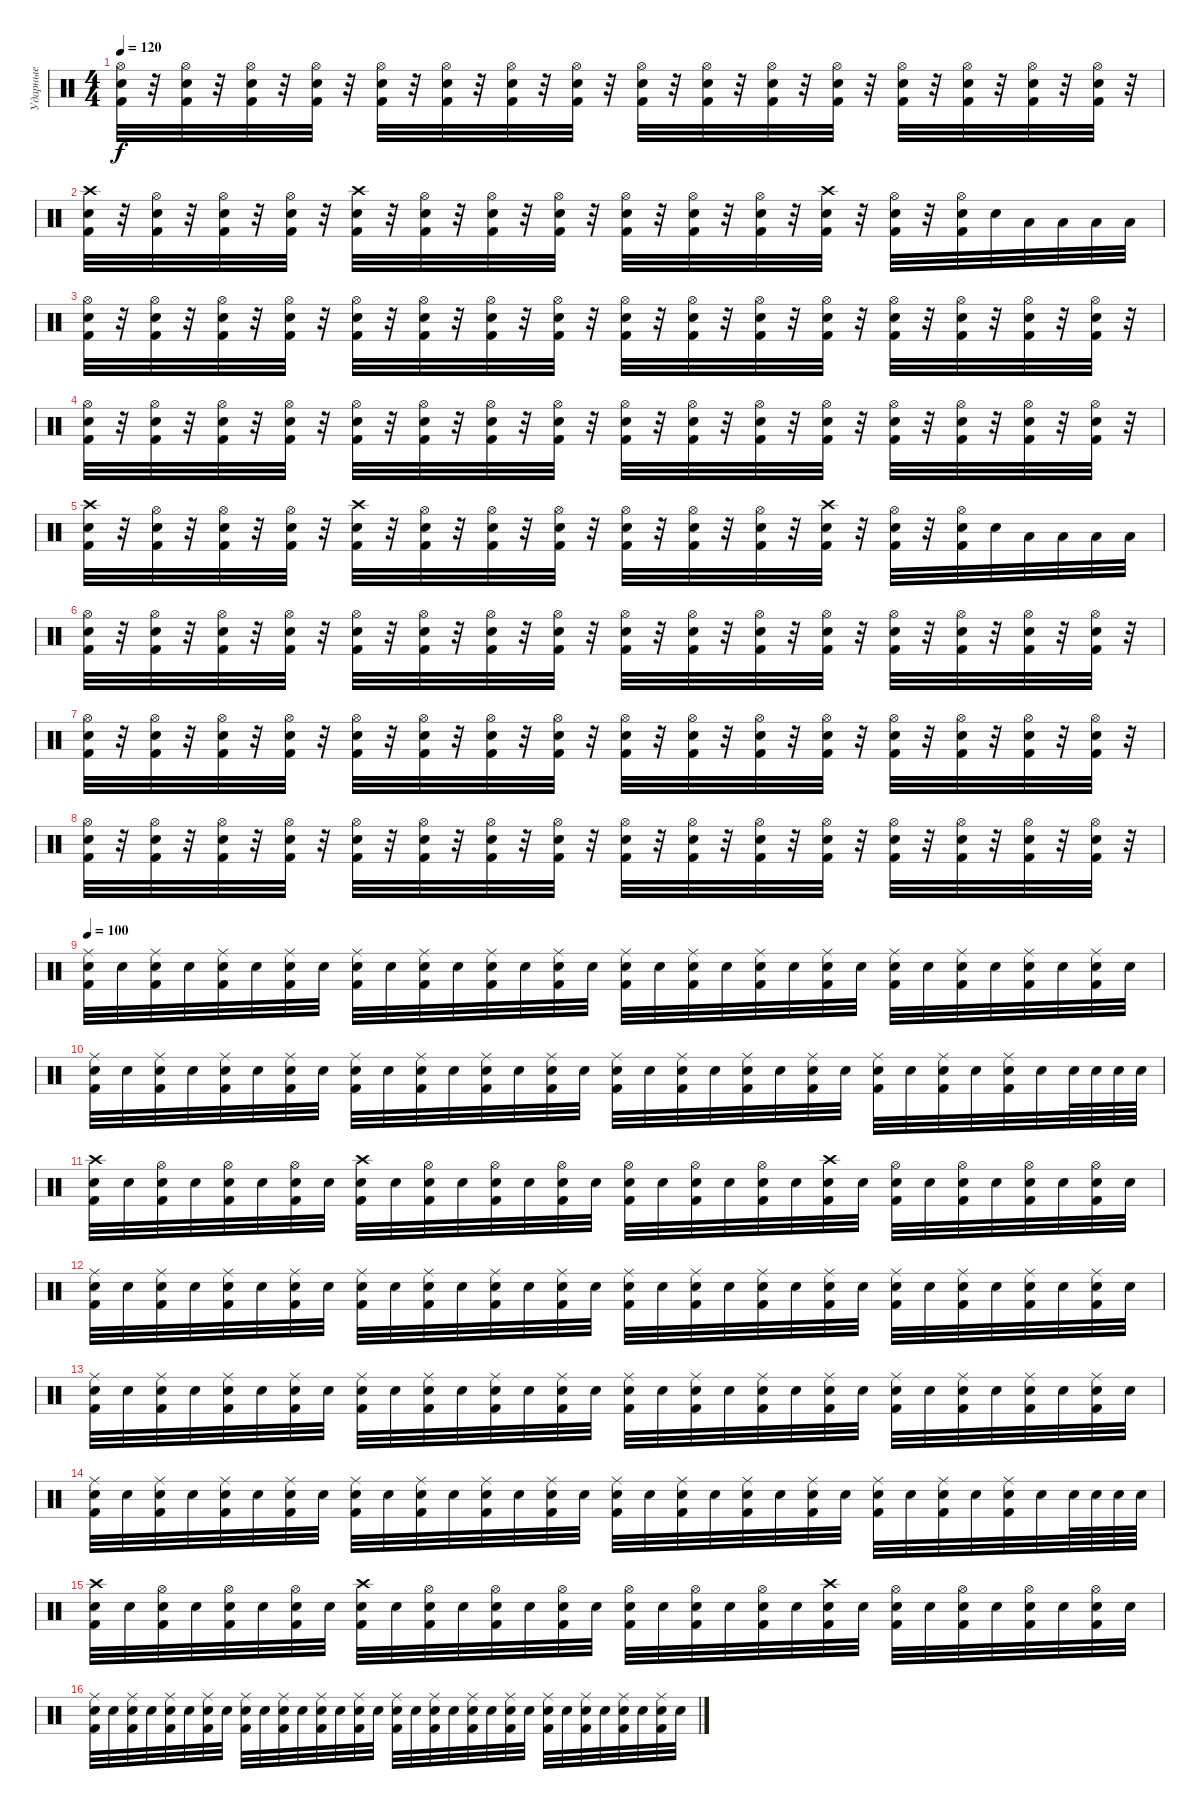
\track ("Ударные" "Ударные") {instrument percussion}
\staff {score}
\articulation defaults
\ts (4 4)
\tempo 120
\clef neutral
\ks c
("Snare (hit) 2" "Kick (hit) 2" "Hi-Hat (open)").32{dy f} r.32 ("Snare (hit) 2" "Kick (hit) 2" "Hi-Hat (open)").32 r.32 ("Snare (hit) 2" "Kick (hit) 2" "Hi-Hat (open)").32 r.32 ("Snare (hit) 2" "Kick (hit) 2" "Hi-Hat (open)").32 r.32 ("Snare (hit) 2" "Kick (hit) 2" "Hi-Hat (open)").32 r.32 ("Snare (hit) 2" "Kick (hit) 2" "Hi-Hat (open)").32 r.32 ("Snare (hit) 2" "Kick (hit) 2" "Hi-Hat (open)").32 r.32 ("Snare (hit) 2" "Kick (hit) 2" "Hi-Hat (open)").32 r.32 ("Snare (hit) 2" "Kick (hit) 2" "Hi-Hat (open)").32 r.32 ("Snare (hit) 2" "Kick (hit) 2" "Hi-Hat (open)").32 r.32 ("Snare (hit) 2" "Kick (hit) 2" "Hi-Hat (open)").32 r.32 ("Snare (hit) 2" "Kick (hit) 2" "Hi-Hat (open)").32 r.32 ("Snare (hit) 2" "Kick (hit) 2" "Hi-Hat (open)").32 r.32 ("Snare (hit) 2" "Kick (hit) 2" "Hi-Hat (open)").32 r.32 ("Snare (hit) 2" "Kick (hit) 2" "Hi-Hat (open)").32 r.32 ("Snare (hit) 2" "Kick (hit) 2" "Hi-Hat (open)").32 r.32 |
("Snare (hit) 2" "Kick (hit) 2" "Crash high (hit)").32 r.32 ("Snare (hit) 2" "Kick (hit) 2" "Hi-Hat (open)").32 r.32 ("Snare (hit) 2" "Kick (hit) 2" "Hi-Hat (open)").32 r.32 ("Snare (hit) 2" "Kick (hit) 2" "Hi-Hat (open)").32 r.32 ("Snare (hit) 2" "Kick (hit) 2" "Crash high (hit)").32 r.32 ("Snare (hit) 2" "Kick (hit) 2" "Hi-Hat (open)").32 r.32 ("Snare (hit) 2" "Kick (hit) 2" "Hi-Hat (open)").32 r.32 ("Snare (hit) 2" "Kick (hit) 2" "Hi-Hat (open)").32 r.32 ("Snare (hit) 2" "Kick (hit) 2" "Hi-Hat (open)").32 r.32 ("Snare (hit) 2" "Kick (hit) 2" "Hi-Hat (open)").32 r.32 ("Snare (hit) 2" "Kick (hit) 2" "Hi-Hat (open)").32 r.32 ("Snare (hit) 2" "Kick (hit) 2" "Crash high (hit)").32 r.32 ("Snare (hit) 2" "Kick (hit) 2" "Hi-Hat (open)").32 r.32 ("Snare (hit) 2" "Kick (hit) 2" "Hi-Hat (open)").32 "Snare (hit) 2".32 "Low Tom (hit)".32 "Low Tom (hit)".32 "Low Tom (hit)".32 "Low Tom (hit)".32 |
("Snare (hit) 2" "Kick (hit) 2" "Hi-Hat (open)").32 r.32 ("Snare (hit) 2" "Kick (hit) 2" "Hi-Hat (open)").32 r.32 ("Snare (hit) 2" "Kick (hit) 2" "Hi-Hat (open)").32 r.32 ("Snare (hit) 2" "Kick (hit) 2" "Hi-Hat (open)").32 r.32 ("Snare (hit) 2" "Kick (hit) 2" "Hi-Hat (open)").32 r.32 ("Snare (hit) 2" "Kick (hit) 2" "Hi-Hat (open)").32 r.32 ("Snare (hit) 2" "Kick (hit) 2" "Hi-Hat (open)").32 r.32 ("Snare (hit) 2" "Kick (hit) 2" "Hi-Hat (open)").32 r.32 ("Snare (hit) 2" "Kick (hit) 2" "Hi-Hat (open)").32 r.32 ("Snare (hit) 2" "Kick (hit) 2" "Hi-Hat (open)").32 r.32 ("Snare (hit) 2" "Kick (hit) 2" "Hi-Hat (open)").32 r.32 ("Snare (hit) 2" "Kick (hit) 2" "Hi-Hat (open)").32 r.32 ("Snare (hit) 2" "Kick (hit) 2" "Hi-Hat (open)").32 r.32 ("Snare (hit) 2" "Kick (hit) 2" "Hi-Hat (open)").32 r.32 ("Snare (hit) 2" "Kick (hit) 2" "Hi-Hat (open)").32 r.32 ("Snare (hit) 2" "Kick (hit) 2" "Hi-Hat (open)").32 r.32 |
("Snare (hit) 2" "Kick (hit) 2" "Hi-Hat (open)").32 r.32 ("Snare (hit) 2" "Kick (hit) 2" "Hi-Hat (open)").32 r.32 ("Snare (hit) 2" "Kick (hit) 2" "Hi-Hat (open)").32 r.32 ("Snare (hit) 2" "Kick (hit) 2" "Hi-Hat (open)").32 r.32 ("Snare (hit) 2" "Kick (hit) 2" "Hi-Hat (open)").32 r.32 ("Snare (hit) 2" "Kick (hit) 2" "Hi-Hat (open)").32 r.32 ("Snare (hit) 2" "Kick (hit) 2" "Hi-Hat (open)").32 r.32 ("Snare (hit) 2" "Kick (hit) 2" "Hi-Hat (open)").32 r.32 ("Snare (hit) 2" "Kick (hit) 2" "Hi-Hat (open)").32 r.32 ("Snare (hit) 2" "Kick (hit) 2" "Hi-Hat (open)").32 r.32 ("Snare (hit) 2" "Kick (hit) 2" "Hi-Hat (open)").32 r.32 ("Snare (hit) 2" "Kick (hit) 2" "Hi-Hat (open)").32 r.32 ("Snare (hit) 2" "Kick (hit) 2" "Hi-Hat (open)").32 r.32 ("Snare (hit) 2" "Kick (hit) 2" "Hi-Hat (open)").32 r.32 ("Snare (hit) 2" "Kick (hit) 2" "Hi-Hat (open)").32 r.32 ("Snare (hit) 2" "Kick (hit) 2" "Hi-Hat (open)").32 r.32 |
("Snare (hit) 2" "Kick (hit) 2" "Crash high (hit)").32 r.32 ("Snare (hit) 2" "Kick (hit) 2" "Hi-Hat (open)").32 r.32 ("Snare (hit) 2" "Kick (hit) 2" "Hi-Hat (open)").32 r.32 ("Snare (hit) 2" "Kick (hit) 2" "Hi-Hat (open)").32 r.32 ("Snare (hit) 2" "Kick (hit) 2" "Crash high (hit)").32 r.32 ("Snare (hit) 2" "Kick (hit) 2" "Hi-Hat (open)").32 r.32 ("Snare (hit) 2" "Kick (hit) 2" "Hi-Hat (open)").32 r.32 ("Snare (hit) 2" "Kick (hit) 2" "Hi-Hat (open)").32 r.32 ("Snare (hit) 2" "Kick (hit) 2" "Hi-Hat (open)").32 r.32 ("Snare (hit) 2" "Kick (hit) 2" "Hi-Hat (open)").32 r.32 ("Snare (hit) 2" "Kick (hit) 2" "Hi-Hat (open)").32 r.32 ("Snare (hit) 2" "Kick (hit) 2" "Crash high (hit)").32 r.32 ("Snare (hit) 2" "Kick (hit) 2" "Hi-Hat (open)").32 r.32 ("Snare (hit) 2" "Kick (hit) 2" "Hi-Hat (open)").32 "Snare (hit) 2".32 "Low Tom (hit)".32 "Low Tom (hit)".32 "Low Tom (hit)".32 "Low Tom (hit)".32 |
("Snare (hit) 2" "Kick (hit) 2" "Hi-Hat (open)").32 r.32 ("Snare (hit) 2" "Kick (hit) 2" "Hi-Hat (open)").32 r.32 ("Snare (hit) 2" "Kick (hit) 2" "Hi-Hat (open)").32 r.32 ("Snare (hit) 2" "Kick (hit) 2" "Hi-Hat (open)").32 r.32 ("Snare (hit) 2" "Kick (hit) 2" "Hi-Hat (open)").32 r.32 ("Snare (hit) 2" "Kick (hit) 2" "Hi-Hat (open)").32 r.32 ("Snare (hit) 2" "Kick (hit) 2" "Hi-Hat (open)").32 r.32 ("Snare (hit) 2" "Kick (hit) 2" "Hi-Hat (open)").32 r.32 ("Snare (hit) 2" "Kick (hit) 2" "Hi-Hat (open)").32 r.32 ("Snare (hit) 2" "Kick (hit) 2" "Hi-Hat (open)").32 r.32 ("Snare (hit) 2" "Kick (hit) 2" "Hi-Hat (open)").32 r.32 ("Snare (hit) 2" "Kick (hit) 2" "Hi-Hat (open)").32 r.32 ("Snare (hit) 2" "Kick (hit) 2" "Hi-Hat (open)").32 r.32 ("Snare (hit) 2" "Kick (hit) 2" "Hi-Hat (open)").32 r.32 ("Snare (hit) 2" "Kick (hit) 2" "Hi-Hat (open)").32 r.32 ("Snare (hit) 2" "Kick (hit) 2" "Hi-Hat (open)").32 r.32 |
("Snare (hit) 2" "Kick (hit) 2" "Hi-Hat (open)").32 r.32 ("Snare (hit) 2" "Kick (hit) 2" "Hi-Hat (open)").32 r.32 ("Snare (hit) 2" "Kick (hit) 2" "Hi-Hat (open)").32 r.32 ("Snare (hit) 2" "Kick (hit) 2" "Hi-Hat (open)").32 r.32 ("Snare (hit) 2" "Kick (hit) 2" "Hi-Hat (open)").32 r.32 ("Snare (hit) 2" "Kick (hit) 2" "Hi-Hat (open)").32 r.32 ("Snare (hit) 2" "Kick (hit) 2" "Hi-Hat (open)").32 r.32 ("Snare (hit) 2" "Kick (hit) 2" "Hi-Hat (open)").32 r.32 ("Snare (hit) 2" "Kick (hit) 2" "Hi-Hat (open)").32 r.32 ("Snare (hit) 2" "Kick (hit) 2" "Hi-Hat (open)").32 r.32 ("Snare (hit) 2" "Kick (hit) 2" "Hi-Hat (open)").32 r.32 ("Snare (hit) 2" "Kick (hit) 2" "Hi-Hat (open)").32 r.32 ("Snare (hit) 2" "Kick (hit) 2" "Hi-Hat (open)").32 r.32 ("Snare (hit) 2" "Kick (hit) 2" "Hi-Hat (open)").32 r.32 ("Snare (hit) 2" "Kick (hit) 2" "Hi-Hat (open)").32 r.32 ("Snare (hit) 2" "Kick (hit) 2" "Hi-Hat (open)").32 r.32 |
("Snare (hit) 2" "Kick (hit) 2" "Hi-Hat (open)").32 r.32 ("Snare (hit) 2" "Kick (hit) 2" "Hi-Hat (open)").32 r.32 ("Snare (hit) 2" "Kick (hit) 2" "Hi-Hat (open)").32 r.32 ("Snare (hit) 2" "Kick (hit) 2" "Hi-Hat (open)").32 r.32 ("Snare (hit) 2" "Kick (hit) 2" "Hi-Hat (open)").32 r.32 ("Snare (hit) 2" "Kick (hit) 2" "Hi-Hat (open)").32 r.32 ("Snare (hit) 2" "Kick (hit) 2" "Hi-Hat (open)").32 r.32 ("Snare (hit) 2" "Kick (hit) 2" "Hi-Hat (open)").32 r.32 ("Snare (hit) 2" "Kick (hit) 2" "Hi-Hat (open)").32 r.32 ("Snare (hit) 2" "Kick (hit) 2" "Hi-Hat (open)").32 r.32 ("Snare (hit) 2" "Kick (hit) 2" "Hi-Hat (open)").32 r.32 ("Snare (hit) 2" "Kick (hit) 2" "Hi-Hat (open)").32 r.32 ("Snare (hit) 2" "Kick (hit) 2" "Hi-Hat (open)").32 r.32 ("Snare (hit) 2" "Kick (hit) 2" "Hi-Hat (open)").32 r.32 ("Snare (hit) 2" "Kick (hit) 2" "Hi-Hat (open)").32 r.32 ("Snare (hit) 2" "Kick (hit) 2" "Hi-Hat (open)").32 r.32 |
\tempo 100
("Snare (hit) 2" "Kick (hit) 2" "Ride (middle)").32 "Snare (hit) 2".32 ("Snare (hit) 2" "Kick (hit) 2" "Ride (middle)").32 "Snare (hit) 2".32 ("Snare (hit) 2" "Kick (hit) 2" "Ride (middle)").32 "Snare (hit) 2".32 ("Snare (hit) 2" "Kick (hit) 2" "Ride (middle)").32 "Snare (hit) 2".32 ("Snare (hit) 2" "Kick (hit) 2" "Ride (middle)").32 "Snare (hit) 2".32 ("Snare (hit) 2" "Kick (hit) 2" "Ride (middle)").32 "Snare (hit) 2".32 ("Snare (hit) 2" "Kick (hit) 2" "Ride (middle)").32 "Snare (hit) 2".32 ("Snare (hit) 2" "Kick (hit) 2" "Ride (middle)").32 "Snare (hit) 2".32 ("Snare (hit) 2" "Kick (hit) 2" "Ride (middle)").32 "Snare (hit) 2".32 ("Snare (hit) 2" "Kick (hit) 2" "Ride (middle)").32 "Snare (hit) 2".32 ("Snare (hit) 2" "Kick (hit) 2" "Ride (middle)").32 "Snare (hit) 2".32 ("Snare (hit) 2" "Kick (hit) 2" "Ride (middle)").32 "Snare (hit) 2".32 ("Snare (hit) 2" "Kick (hit) 2" "Ride (middle)").32 "Snare (hit) 2".32 ("Snare (hit) 2" "Kick (hit) 2" "Ride (middle)").32 "Snare (hit) 2".32 ("Snare (hit) 2" "Kick (hit) 2" "Ride (middle)").32 "Snare (hit) 2".32 ("Snare (hit) 2" "Kick (hit) 2" "Ride (middle)").32 "Snare (hit) 2".32 |
("Snare (hit) 2" "Kick (hit) 2" "Ride (middle)").32 "Snare (hit) 2".32 ("Snare (hit) 2" "Kick (hit) 2" "Ride (middle)").32 "Snare (hit) 2".32 ("Snare (hit) 2" "Kick (hit) 2" "Ride (middle)").32 "Snare (hit) 2".32 ("Snare (hit) 2" "Kick (hit) 2" "Ride (middle)").32 "Snare (hit) 2".32 ("Snare (hit) 2" "Kick (hit) 2" "Ride (middle)").32 "Snare (hit) 2".32 ("Snare (hit) 2" "Kick (hit) 2" "Ride (middle)").32 "Snare (hit) 2".32 ("Snare (hit) 2" "Kick (hit) 2" "Ride (middle)").32 "Snare (hit) 2".32 ("Snare (hit) 2" "Kick (hit) 2" "Ride (middle)").32 "Snare (hit) 2".32 ("Snare (hit) 2" "Kick (hit) 2" "Ride (middle)").32 "Snare (hit) 2".32 ("Snare (hit) 2" "Kick (hit) 2" "Ride (middle)").32 "Snare (hit) 2".32 ("Snare (hit) 2" "Kick (hit) 2" "Ride (middle)").32 "Snare (hit) 2".32 ("Snare (hit) 2" "Kick (hit) 2" "Ride (middle)").32 "Snare (hit) 2".32 ("Snare (hit) 2" "Kick (hit) 2" "Ride (middle)").32 "Snare (hit) 2".32 ("Snare (hit) 2" "Kick (hit) 2" "Ride (middle)").32 "Snare (hit) 2".32 ("Snare (hit) 2" "Kick (hit) 2" "Ride (middle)").32 "Snare (hit) 2".32 "Snare (hit) 2".64 "Snare (hit) 2".64 "Snare (hit) 2".64 "Snare (hit) 2".64 |
("Snare (hit) 2" "Kick (hit) 2" "Crash high (hit)").32 "Snare (hit) 2".32 ("Snare (hit) 2" "Kick (hit) 2" "Hi-Hat (open)").32 "Snare (hit) 2".32 ("Snare (hit) 2" "Kick (hit) 2" "Hi-Hat (open)").32 "Snare (hit) 2".32 ("Snare (hit) 2" "Kick (hit) 2" "Hi-Hat (open)").32 "Snare (hit) 2".32 ("Snare (hit) 2" "Kick (hit) 2" "Crash high (hit)").32 "Snare (hit) 2".32 ("Snare (hit) 2" "Kick (hit) 2" "Hi-Hat (open)").32 "Snare (hit) 2".32 ("Snare (hit) 2" "Kick (hit) 2" "Hi-Hat (open)").32 "Snare (hit) 2".32 ("Snare (hit) 2" "Kick (hit) 2" "Hi-Hat (open)").32 "Snare (hit) 2".32 ("Snare (hit) 2" "Kick (hit) 2" "Hi-Hat (open)").32 "Snare (hit) 2".32 ("Snare (hit) 2" "Kick (hit) 2" "Hi-Hat (open)").32 "Snare (hit) 2".32 ("Snare (hit) 2" "Kick (hit) 2" "Hi-Hat (open)").32 "Snare (hit) 2".32 ("Snare (hit) 2" "Kick (hit) 2" "Crash high (hit)").32 "Snare (hit) 2".32 ("Snare (hit) 2" "Kick (hit) 2" "Hi-Hat (open)").32 "Snare (hit) 2".32 ("Snare (hit) 2" "Kick (hit) 2" "Hi-Hat (open)").32 "Snare (hit) 2".32 ("Snare (hit) 2" "Kick (hit) 2" "Hi-Hat (open)").32 "Snare (hit) 2".32 ("Snare (hit) 2" "Kick (hit) 2" "Hi-Hat (open)").32 "Snare (hit) 2".32 |
("Snare (hit) 2" "Kick (hit) 2" "Ride (middle)").32 "Snare (hit) 2".32 ("Snare (hit) 2" "Kick (hit) 2" "Ride (middle)").32 "Snare (hit) 2".32 ("Snare (hit) 2" "Kick (hit) 2" "Ride (middle)").32 "Snare (hit) 2".32 ("Snare (hit) 2" "Kick (hit) 2" "Ride (middle)").32 "Snare (hit) 2".32 ("Snare (hit) 2" "Kick (hit) 2" "Ride (middle)").32 "Snare (hit) 2".32 ("Snare (hit) 2" "Kick (hit) 2" "Ride (middle)").32 "Snare (hit) 2".32 ("Snare (hit) 2" "Kick (hit) 2" "Ride (middle)").32 "Snare (hit) 2".32 ("Snare (hit) 2" "Kick (hit) 2" "Ride (middle)").32 "Snare (hit) 2".32 ("Snare (hit) 2" "Kick (hit) 2" "Ride (middle)").32 "Snare (hit) 2".32 ("Snare (hit) 2" "Kick (hit) 2" "Ride (middle)").32 "Snare (hit) 2".32 ("Snare (hit) 2" "Kick (hit) 2" "Ride (middle)").32 "Snare (hit) 2".32 ("Snare (hit) 2" "Kick (hit) 2" "Ride (middle)").32 "Snare (hit) 2".32 ("Snare (hit) 2" "Kick (hit) 2" "Ride (middle)").32 "Snare (hit) 2".32 ("Snare (hit) 2" "Kick (hit) 2" "Ride (middle)").32 "Snare (hit) 2".32 ("Snare (hit) 2" "Kick (hit) 2" "Ride (middle)").32 "Snare (hit) 2".32 ("Snare (hit) 2" "Kick (hit) 2" "Ride (middle)").32 "Snare (hit) 2".32 |
("Snare (hit) 2" "Kick (hit) 2" "Ride (middle)").32 "Snare (hit) 2".32 ("Snare (hit) 2" "Kick (hit) 2" "Ride (middle)").32 "Snare (hit) 2".32 ("Snare (hit) 2" "Kick (hit) 2" "Ride (middle)").32 "Snare (hit) 2".32 ("Snare (hit) 2" "Kick (hit) 2" "Ride (middle)").32 "Snare (hit) 2".32 ("Snare (hit) 2" "Kick (hit) 2" "Ride (middle)").32 "Snare (hit) 2".32 ("Snare (hit) 2" "Kick (hit) 2" "Ride (middle)").32 "Snare (hit) 2".32 ("Snare (hit) 2" "Kick (hit) 2" "Ride (middle)").32 "Snare (hit) 2".32 ("Snare (hit) 2" "Kick (hit) 2" "Ride (middle)").32 "Snare (hit) 2".32 ("Snare (hit) 2" "Kick (hit) 2" "Ride (middle)").32 "Snare (hit) 2".32 ("Snare (hit) 2" "Kick (hit) 2" "Ride (middle)").32 "Snare (hit) 2".32 ("Snare (hit) 2" "Kick (hit) 2" "Ride (middle)").32 "Snare (hit) 2".32 ("Snare (hit) 2" "Kick (hit) 2" "Ride (middle)").32 "Snare (hit) 2".32 ("Snare (hit) 2" "Kick (hit) 2" "Ride (middle)").32 "Snare (hit) 2".32 ("Snare (hit) 2" "Kick (hit) 2" "Ride (middle)").32 "Snare (hit) 2".32 ("Snare (hit) 2" "Kick (hit) 2" "Ride (middle)").32 "Snare (hit) 2".32 ("Snare (hit) 2" "Kick (hit) 2" "Ride (middle)").32 "Snare (hit) 2".32 |
("Snare (hit) 2" "Kick (hit) 2" "Ride (middle)").32 "Snare (hit) 2".32 ("Snare (hit) 2" "Kick (hit) 2" "Ride (middle)").32 "Snare (hit) 2".32 ("Snare (hit) 2" "Kick (hit) 2" "Ride (middle)").32 "Snare (hit) 2".32 ("Snare (hit) 2" "Kick (hit) 2" "Ride (middle)").32 "Snare (hit) 2".32 ("Snare (hit) 2" "Kick (hit) 2" "Ride (middle)").32 "Snare (hit) 2".32 ("Snare (hit) 2" "Kick (hit) 2" "Ride (middle)").32 "Snare (hit) 2".32 ("Snare (hit) 2" "Kick (hit) 2" "Ride (middle)").32 "Snare (hit) 2".32 ("Snare (hit) 2" "Kick (hit) 2" "Ride (middle)").32 "Snare (hit) 2".32 ("Snare (hit) 2" "Kick (hit) 2" "Ride (middle)").32 "Snare (hit) 2".32 ("Snare (hit) 2" "Kick (hit) 2" "Ride (middle)").32 "Snare (hit) 2".32 ("Snare (hit) 2" "Kick (hit) 2" "Ride (middle)").32 "Snare (hit) 2".32 ("Snare (hit) 2" "Kick (hit) 2" "Ride (middle)").32 "Snare (hit) 2".32 ("Snare (hit) 2" "Kick (hit) 2" "Ride (middle)").32 "Snare (hit) 2".32 ("Snare (hit) 2" "Kick (hit) 2" "Ride (middle)").32 "Snare (hit) 2".32 ("Snare (hit) 2" "Kick (hit) 2" "Ride (middle)").32 "Snare (hit) 2".32 "Snare (hit) 2".64 "Snare (hit) 2".64 "Snare (hit) 2".64 "Snare (hit) 2".64 |
("Snare (hit) 2" "Kick (hit) 2" "Crash high (hit)").32 "Snare (hit) 2".32 ("Snare (hit) 2" "Kick (hit) 2" "Hi-Hat (open)").32 "Snare (hit) 2".32 ("Snare (hit) 2" "Kick (hit) 2" "Hi-Hat (open)").32 "Snare (hit) 2".32 ("Snare (hit) 2" "Kick (hit) 2" "Hi-Hat (open)").32 "Snare (hit) 2".32 ("Snare (hit) 2" "Kick (hit) 2" "Crash high (hit)").32 "Snare (hit) 2".32 ("Snare (hit) 2" "Kick (hit) 2" "Hi-Hat (open)").32 "Snare (hit) 2".32 ("Snare (hit) 2" "Kick (hit) 2" "Hi-Hat (open)").32 "Snare (hit) 2".32 ("Snare (hit) 2" "Kick (hit) 2" "Hi-Hat (open)").32 "Snare (hit) 2".32 ("Snare (hit) 2" "Kick (hit) 2" "Hi-Hat (open)").32 "Snare (hit) 2".32 ("Snare (hit) 2" "Kick (hit) 2" "Hi-Hat (open)").32 "Snare (hit) 2".32 ("Snare (hit) 2" "Kick (hit) 2" "Hi-Hat (open)").32 "Snare (hit) 2".32 ("Snare (hit) 2" "Kick (hit) 2" "Crash high (hit)").32 "Snare (hit) 2".32 ("Snare (hit) 2" "Kick (hit) 2" "Hi-Hat (open)").32 "Snare (hit) 2".32 ("Snare (hit) 2" "Kick (hit) 2" "Hi-Hat (open)").32 "Snare (hit) 2".32 ("Snare (hit) 2" "Kick (hit) 2" "Hi-Hat (open)").32 "Snare (hit) 2".32 ("Snare (hit) 2" "Kick (hit) 2" "Hi-Hat (open)").32 "Snare (hit) 2".32 |
("Snare (hit) 2" "Kick (hit) 2" "Ride (middle)").32 "Snare (hit) 2".32 ("Snare (hit) 2" "Kick (hit) 2" "Ride (middle)").32 "Snare (hit) 2".32 ("Snare (hit) 2" "Kick (hit) 2" "Ride (middle)").32 "Snare (hit) 2".32 ("Snare (hit) 2" "Kick (hit) 2" "Ride (middle)").32 "Snare (hit) 2".32 ("Snare (hit) 2" "Kick (hit) 2" "Ride (middle)").32 "Snare (hit) 2".32 ("Snare (hit) 2" "Kick (hit) 2" "Ride (middle)").32 "Snare (hit) 2".32 ("Snare (hit) 2" "Kick (hit) 2" "Ride (middle)").32 "Snare (hit) 2".32 ("Snare (hit) 2" "Kick (hit) 2" "Ride (middle)").32 "Snare (hit) 2".32 ("Snare (hit) 2" "Kick (hit) 2" "Ride (middle)").32 "Snare (hit) 2".32 ("Snare (hit) 2" "Kick (hit) 2" "Ride (middle)").32 "Snare (hit) 2".32 ("Snare (hit) 2" "Kick (hit) 2" "Ride (middle)").32 "Snare (hit) 2".32 ("Snare (hit) 2" "Kick (hit) 2" "Ride (middle)").32 "Snare (hit) 2".32 ("Snare (hit) 2" "Kick (hit) 2" "Ride (middle)").32 "Snare (hit) 2".32 ("Snare (hit) 2" "Kick (hit) 2" "Ride (middle)").32 "Snare (hit) 2".32 ("Snare (hit) 2" "Kick (hit) 2" "Ride (middle)").32 "Snare (hit) 2".32 ("Snare (hit) 2" "Kick (hit) 2" "Ride (middle)").32 "Snare (hit) 2".32
